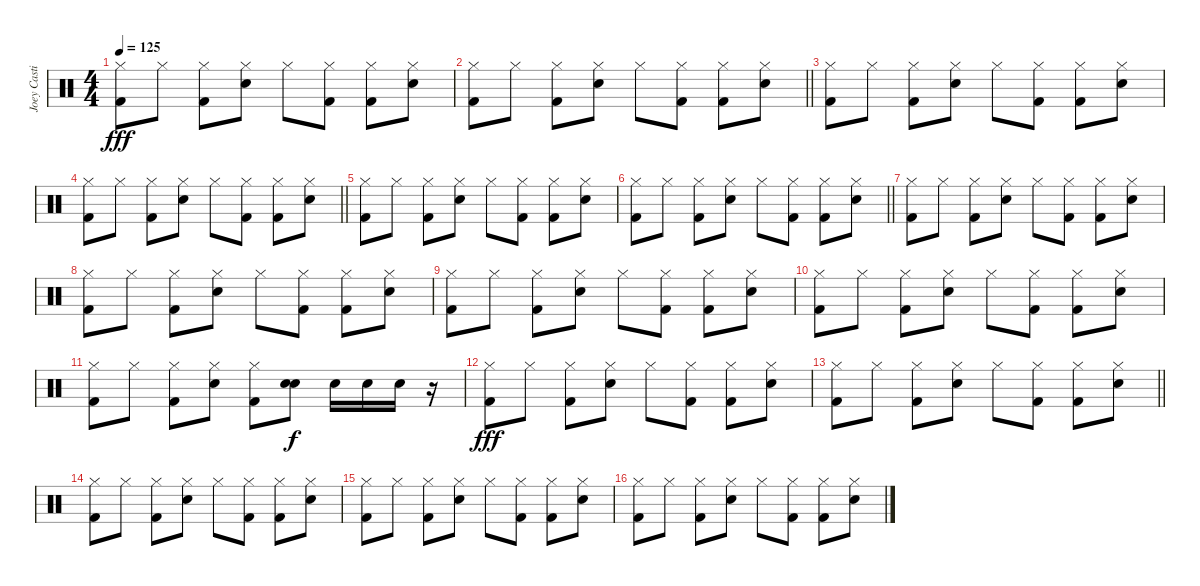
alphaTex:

\track ("Joey Castillo" "Joey Casti") {instrument percussion}
\staff {score}
\articulation defaults
\ts (4 4)
\tempo 125
\clef neutral
\ks c
("Hi-Hat (closed)" "Kick (hit) 2").8{dy fff} "Hi-Hat (closed)".8 ("Hi-Hat (closed)" "Kick (hit) 2").8 ("Hi-Hat (closed)" "Electric Snare (hit)").8 "Hi-Hat (closed)".8 ("Hi-Hat (closed)" "Kick (hit) 2").8 ("Hi-Hat (closed)" "Kick (hit) 2").8 ("Hi-Hat (closed)" "Electric Snare (hit)").8 |
\barLineRight lightlight
("Hi-Hat (closed)" "Kick (hit) 2").8 "Hi-Hat (closed)".8 ("Hi-Hat (closed)" "Kick (hit) 2").8 ("Hi-Hat (closed)" "Electric Snare (hit)").8 "Hi-Hat (closed)".8 ("Hi-Hat (closed)" "Kick (hit) 2").8 ("Hi-Hat (closed)" "Kick (hit) 2").8 ("Hi-Hat (closed)" "Electric Snare (hit)").8 |
("Hi-Hat (closed)" "Kick (hit) 2").8 "Hi-Hat (closed)".8 ("Hi-Hat (closed)" "Kick (hit) 2").8 ("Hi-Hat (closed)" "Electric Snare (hit)").8 "Hi-Hat (closed)".8 ("Hi-Hat (closed)" "Kick (hit) 2").8 ("Hi-Hat (closed)" "Kick (hit) 2").8 ("Hi-Hat (closed)" "Electric Snare (hit)").8 |
\barLineRight lightlight
("Hi-Hat (closed)" "Kick (hit) 2").8 "Hi-Hat (closed)".8 ("Hi-Hat (closed)" "Kick (hit) 2").8 ("Hi-Hat (closed)" "Electric Snare (hit)").8 "Hi-Hat (closed)".8 ("Hi-Hat (closed)" "Kick (hit) 2").8 ("Hi-Hat (closed)" "Kick (hit) 2").8 ("Hi-Hat (closed)" "Electric Snare (hit)").8 |
("Hi-Hat (closed)" "Kick (hit) 2").8 "Hi-Hat (closed)".8 ("Hi-Hat (closed)" "Kick (hit) 2").8 ("Hi-Hat (closed)" "Electric Snare (hit)").8 "Hi-Hat (closed)".8 ("Hi-Hat (closed)" "Kick (hit) 2").8 ("Hi-Hat (closed)" "Kick (hit) 2").8 ("Hi-Hat (closed)" "Electric Snare (hit)").8 |
\barLineRight lightlight
("Hi-Hat (closed)" "Kick (hit) 2").8 "Hi-Hat (closed)".8 ("Hi-Hat (closed)" "Kick (hit) 2").8 ("Hi-Hat (closed)" "Electric Snare (hit)").8 "Hi-Hat (closed)".8 ("Hi-Hat (closed)" "Kick (hit) 2").8 ("Hi-Hat (closed)" "Kick (hit) 2").8 ("Hi-Hat (closed)" "Electric Snare (hit)").8 |
("Hi-Hat (closed)" "Kick (hit) 2").8 "Hi-Hat (closed)".8 ("Hi-Hat (closed)" "Kick (hit) 2").8 ("Hi-Hat (closed)" "Electric Snare (hit)").8 "Hi-Hat (closed)".8 ("Hi-Hat (closed)" "Kick (hit) 2").8 ("Hi-Hat (closed)" "Kick (hit) 2").8 ("Hi-Hat (closed)" "Electric Snare (hit)").8 |
("Hi-Hat (closed)" "Kick (hit) 2").8 "Hi-Hat (closed)".8 ("Hi-Hat (closed)" "Kick (hit) 2").8 ("Hi-Hat (closed)" "Electric Snare (hit)").8 "Hi-Hat (closed)".8 ("Hi-Hat (closed)" "Kick (hit) 2").8 ("Hi-Hat (closed)" "Kick (hit) 2").8 ("Hi-Hat (closed)" "Electric Snare (hit)").8 |
("Hi-Hat (closed)" "Kick (hit) 2").8 "Hi-Hat (closed)".8 ("Hi-Hat (closed)" "Kick (hit) 2").8 ("Hi-Hat (closed)" "Electric Snare (hit)").8 "Hi-Hat (closed)".8 ("Hi-Hat (closed)" "Kick (hit) 2").8 ("Hi-Hat (closed)" "Kick (hit) 2").8 ("Hi-Hat (closed)" "Electric Snare (hit)").8 |
("Hi-Hat (closed)" "Kick (hit) 2").8 "Hi-Hat (closed)".8 ("Hi-Hat (closed)" "Kick (hit) 2").8 ("Hi-Hat (closed)" "Electric Snare (hit)").8 "Hi-Hat (closed)".8 ("Hi-Hat (closed)" "Kick (hit) 2").8 ("Hi-Hat (closed)" "Kick (hit) 2").8 ("Hi-Hat (closed)" "Electric Snare (hit)").8 |
("Hi-Hat (closed)" "Kick (hit) 2").8 "Hi-Hat (closed)".8 ("Hi-Hat (closed)" "Kick (hit) 2").8 ("Hi-Hat (closed)" "Electric Snare (hit)").8 ("Hi-Hat (closed)" "Kick (hit) 2").8 ("Electric Snare (hit)" "Electric Snare (hit)").8{bu 240 dy f} "Electric Snare (hit)".16 "Electric Snare (hit)".16 "Electric Snare (hit)".16 r.16 |
("Hi-Hat (closed)" "Kick (hit) 2").8{dy fff} "Hi-Hat (closed)".8 ("Hi-Hat (closed)" "Kick (hit) 2").8 ("Hi-Hat (closed)" "Electric Snare (hit)").8 "Hi-Hat (closed)".8 ("Hi-Hat (closed)" "Kick (hit) 2").8 ("Hi-Hat (closed)" "Kick (hit) 2").8 ("Hi-Hat (closed)" "Electric Snare (hit)").8 |
\barLineRight lightlight
("Hi-Hat (closed)" "Kick (hit) 2").8 "Hi-Hat (closed)".8 ("Hi-Hat (closed)" "Kick (hit) 2").8 ("Hi-Hat (closed)" "Electric Snare (hit)").8 "Hi-Hat (closed)".8 ("Hi-Hat (closed)" "Kick (hit) 2").8 ("Hi-Hat (closed)" "Kick (hit) 2").8 ("Hi-Hat (closed)" "Electric Snare (hit)").8 |
("Hi-Hat (closed)" "Kick (hit) 2").8 "Hi-Hat (closed)".8 ("Hi-Hat (closed)" "Kick (hit) 2").8 ("Hi-Hat (closed)" "Electric Snare (hit)").8 "Hi-Hat (closed)".8 ("Hi-Hat (closed)" "Kick (hit) 2").8 ("Hi-Hat (closed)" "Kick (hit) 2").8 ("Hi-Hat (closed)" "Electric Snare (hit)").8 |
("Hi-Hat (closed)" "Kick (hit) 2").8 "Hi-Hat (closed)".8 ("Hi-Hat (closed)" "Kick (hit) 2").8 ("Hi-Hat (closed)" "Electric Snare (hit)").8 "Hi-Hat (closed)".8 ("Hi-Hat (closed)" "Kick (hit) 2").8 ("Hi-Hat (closed)" "Kick (hit) 2").8 ("Hi-Hat (closed)" "Electric Snare (hit)").8 |
("Hi-Hat (closed)" "Kick (hit) 2").8 "Hi-Hat (closed)".8 ("Hi-Hat (closed)" "Kick (hit) 2").8 ("Hi-Hat (closed)" "Electric Snare (hit)").8 "Hi-Hat (closed)".8 ("Hi-Hat (closed)" "Kick (hit) 2").8 ("Hi-Hat (closed)" "Kick (hit) 2").8 ("Hi-Hat (closed)" "Electric Snare (hit)").8
